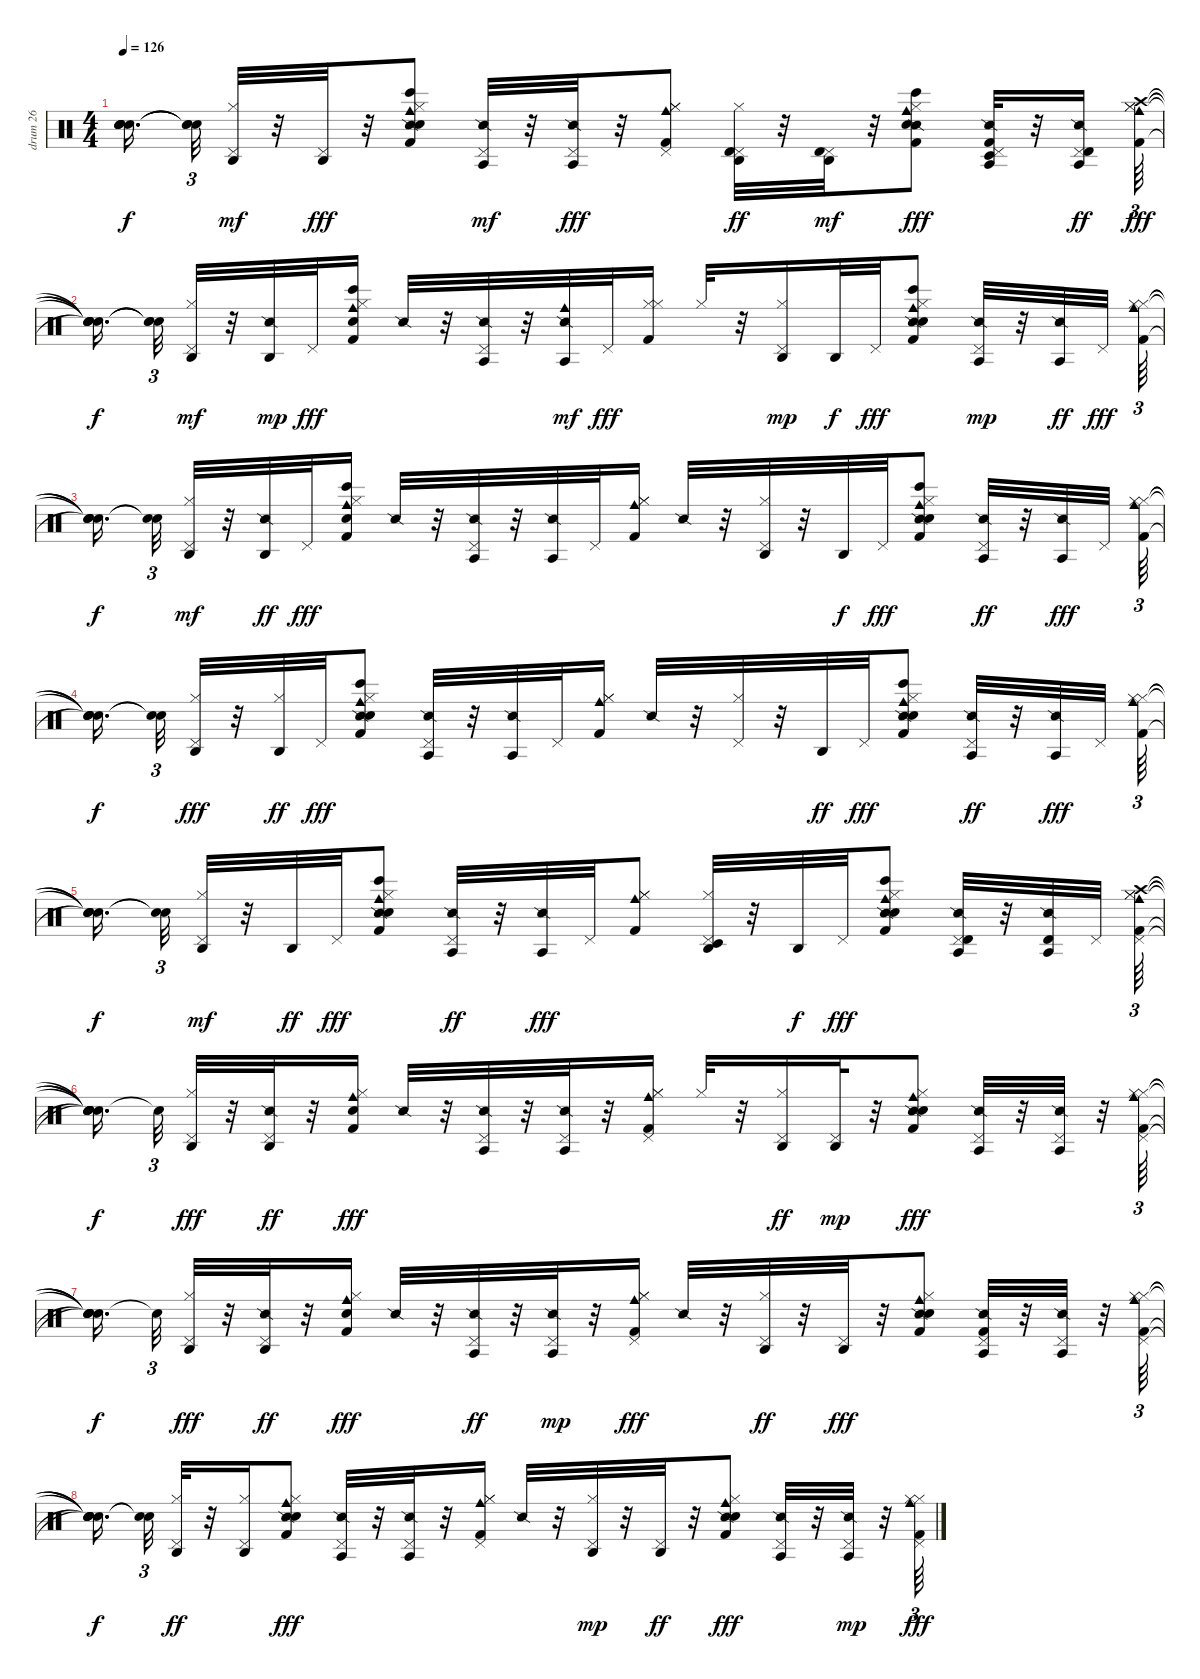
\track ("drum 26" "drum 26") {instrument percussion}
\staff {score}
\articulation defaults
\ts (4 4)
\tempo 126
\clef neutral
\ks c
("Snare (hit)"{t} "Snare (hit)"{t} "Snare (hit)"{t} "Snare (hit)"{t} "Snare (hit)"{t}).16{d dy f beam splitsecondary} ("Snare (hit)"{t} "Snare (hit)"{t} "Snare (hit)"{t}).32{tu (3 2)} ("Hi-Hat (closed)" "Pedal Hi-Hat (hit)" "Agogo high (hit)").32{dy mf} r.32 ("Pedal Hi-Hat (hit)" "Agogo high (hit)").32{dy fff} r.32 ("Bongo High (hit)" "Snare (side stick) 2" "Kick (hit) 2" "Hand Clap (hit)" "Hi-Hat (closed)" "Cowbell medium (hit)").8 ("Snare (side stick) 2" "Pedal Hi-Hat (hit)" "Agogo tow (hit)").32{dy mf} r.32 ("Snare (side stick) 2" "Pedal Hi-Hat (hit)" "Agogo tow (hit)").32{dy fff} r.32 ("Hi-Hat (closed)" "Kick (hit) 2" "Hi-Hat (closed)" "Pedal Hi-Hat (hit)" "Cowbell medium (hit)").8 ("Hi-Hat (closed)" "Pedal Hi-Hat (hit)" "Timbale high (hit)" "Agogo high (hit)").32{dy ff} r.32 ("Pedal Hi-Hat (hit)" "Timbale high (hit)" "Agogo high (hit)").32{dy mf} r.32 ("Bongo High (hit)" "Snare (side stick) 2" "Kick (hit) 2" "Hand Clap (hit)" "Hi-Hat (closed)" "Cowbell medium (hit)").8{dy fff} ("Snare (side stick) 2" "Kick (hit) 2" "Pedal Hi-Hat (hit)" "Timbale low (hit)" "Agogo tow (hit)").32 r.32 ("Snare (side stick) 2" "Pedal Hi-Hat (hit)" "Timbale high (hit)" "Agogo tow (hit)").16{dy ff} ("Hi-Hat (closed)" "Kick (hit) 2" "Hi-Hat (closed)" "Crash high (hit)" "Cowbell medium (hit)").64{tu (3 2) dy fff} |
("Snare (hit)"{t} "Snare (hit)"{t} "Snare (hit)"{t} "Snare (hit)"{t} "Snare (hit)"{t}).16{d dy f beam splitsecondary} ("Snare (hit)"{t} "Snare (hit)"{t} "Snare (hit)"{t}).32{tu (3 2)} ("Hi-Hat (closed)" "Pedal Hi-Hat (hit)" "Agogo high (hit)").32{dy mf} r.32 ("Snare (side stick) 2" "Agogo high (hit)").32{dy mp} "Pedal Hi-Hat (hit)".32{dy fff} ("Bongo High (hit)" "Kick (hit) 2" "Hand Clap (hit)" "Hi-Hat (closed)" "Cowbell medium (hit)").16 "Snare (side stick) 2".32 r.32 ("Snare (side stick) 2" "Pedal Hi-Hat (hit)" "Agogo tow (hit)").32 r.32 ("Snare (side stick) 2" "Cowbell medium (hit)" "Agogo tow (hit)").32{dy mf} "Pedal Hi-Hat (hit)".32{dy fff} ("Hi-Hat (closed)" "Kick (hit) 2" "Hi-Hat (closed)").16 "Hi-Hat (closed)".32 r.32 ("Hi-Hat (closed)" "Pedal Hi-Hat (hit)" "Agogo high (hit)").16{dy mp} "Agogo high (hit)".32{dy f} "Pedal Hi-Hat (hit)".32{dy fff} ("Bongo High (hit)" "Snare (side stick) 2" "Kick (hit) 2" "Hand Clap (hit)" "Hi-Hat (closed)" "Cowbell medium (hit)").8 ("Snare (side stick) 2" "Pedal Hi-Hat (hit)" "Agogo tow (hit)").32{dy mp} r.32 ("Snare (side stick) 2" "Agogo tow (hit)").32{dy ff} "Pedal Hi-Hat (hit)".32{dy fff beam splitsecondary} ("Hi-Hat (closed)" "Kick (hit) 2" "Hi-Hat (closed)" "Cowbell medium (hit)").64{tu (3 2)} |
("Snare (hit)"{t} "Snare (hit)"{t} "Snare (hit)"{t} "Snare (hit)"{t}).16{d dy f beam splitsecondary} ("Snare (hit)"{t} "Snare (hit)"{t}).32{tu (3 2)} ("Hi-Hat (closed)" "Pedal Hi-Hat (hit)" "Agogo high (hit)").32{dy mf} r.32 ("Snare (side stick) 2" "Agogo high (hit)").32{dy ff} "Pedal Hi-Hat (hit)".32{dy fff} ("Bongo High (hit)" "Kick (hit) 2" "Hand Clap (hit)" "Hi-Hat (closed)" "Cowbell medium (hit)").16 "Snare (side stick) 2".32 r.32 ("Snare (side stick) 2" "Pedal Hi-Hat (hit)" "Agogo tow (hit)").32 r.32 ("Snare (side stick) 2" "Agogo tow (hit)").32 "Pedal Hi-Hat (hit)".32 ("Hi-Hat (closed)" "Kick (hit) 2" "Hi-Hat (closed)" "Cowbell medium (hit)").16 "Snare (side stick) 2".32 r.32 ("Hi-Hat (closed)" "Pedal Hi-Hat (hit)" "Agogo high (hit)").32 r.32 "Agogo high (hit)".32{dy f} "Pedal Hi-Hat (hit)".32{dy fff} ("Bongo High (hit)" "Snare (side stick) 2" "Kick (hit) 2" "Hand Clap (hit)" "Hi-Hat (closed)" "Cowbell medium (hit)").8 ("Snare (side stick) 2" "Pedal Hi-Hat (hit)" "Agogo tow (hit)").32{dy ff} r.32 ("Snare (side stick) 2" "Agogo tow (hit)").32{dy fff} "Pedal Hi-Hat (hit)".32{beam splitsecondary} ("Hi-Hat (closed)" "Kick (hit) 2" "Hi-Hat (closed)" "Cowbell medium (hit)").64{tu (3 2)} |
("Snare (hit)"{t} "Snare (hit)"{t} "Snare (hit)"{t} "Snare (hit)"{t}).16{d dy f beam splitsecondary} ("Snare (hit)"{t} "Snare (hit)"{t}).32{tu (3 2)} ("Hi-Hat (closed)" "Pedal Hi-Hat (hit)" "Agogo high (hit)").32{dy fff} r.32 ("Hi-Hat (closed)" "Agogo high (hit)").32{dy ff} "Pedal Hi-Hat (hit)".32{dy fff} ("Bongo High (hit)" "Snare (side stick) 2" "Kick (hit) 2" "Hand Clap (hit)" "Hi-Hat (closed)" "Cowbell medium (hit)").8 ("Snare (side stick) 2" "Pedal Hi-Hat (hit)" "Agogo tow (hit)").32 r.32 ("Snare (side stick) 2" "Agogo tow (hit)").32 "Pedal Hi-Hat (hit)".32 ("Hi-Hat (closed)" "Kick (hit) 2" "Hi-Hat (closed)" "Cowbell medium (hit)").16 "Snare (side stick) 2".32 r.32 ("Hi-Hat (closed)" "Pedal Hi-Hat (hit)").32 r.32 "Agogo high (hit)".32{dy ff} "Pedal Hi-Hat (hit)".32{dy fff} ("Bongo High (hit)" "Snare (side stick) 2" "Kick (hit) 2" "Hand Clap (hit)" "Hi-Hat (closed)" "Cowbell medium (hit)").8 ("Snare (side stick) 2" "Pedal Hi-Hat (hit)" "Agogo tow (hit)").32{dy ff} r.32 ("Snare (side stick) 2" "Agogo tow (hit)").32{dy fff} "Pedal Hi-Hat (hit)".32{beam splitsecondary} ("Hi-Hat (closed)" "Kick (hit) 2" "Hi-Hat (closed)" "Cowbell medium (hit)").64{tu (3 2)} |
("Snare (hit)"{t} "Snare (hit)"{t} "Snare (hit)"{t} "Snare (hit)"{t}).16{d dy f beam splitsecondary} ("Snare (hit)"{t} "Snare (hit)"{t}).32{tu (3 2)} ("Hi-Hat (closed)" "Pedal Hi-Hat (hit)" "Agogo high (hit)").32{dy mf} r.32 "Agogo high (hit)".32{dy ff} "Pedal Hi-Hat (hit)".32{dy fff} ("Bongo High (hit)" "Snare (side stick) 2" "Kick (hit) 2" "Hand Clap (hit)" "Hi-Hat (closed)" "Cowbell medium (hit)").8 ("Snare (side stick) 2" "Pedal Hi-Hat (hit)" "Agogo tow (hit)").32{dy ff} r.32 ("Snare (side stick) 2" "Agogo tow (hit)").32{dy fff} "Pedal Hi-Hat (hit)".32 ("Hi-Hat (closed)" "Kick (hit) 2" "Hi-Hat (closed)" "Cowbell medium (hit)").8 ("Hi-Hat (closed)" "Pedal Hi-Hat (hit)" "Timbale low (hit)" "Agogo high (hit)").32 r.32 "Agogo high (hit)".32{dy f} "Pedal Hi-Hat (hit)".32{dy fff} ("Bongo High (hit)" "Snare (side stick) 2" "Kick (hit) 2" "Hand Clap (hit)" "Hi-Hat (closed)" "Cowbell medium (hit)").8 ("Snare (side stick) 2" "Pedal Hi-Hat (hit)" "Timbale high (hit)" "Agogo tow (hit)").32 r.32 ("Snare (side stick) 2" "Timbale high (hit)" "Agogo tow (hit)").32 "Pedal Hi-Hat (hit)".32{beam splitsecondary} ("Hi-Hat (closed)" "Kick (hit) 2" "Hi-Hat (closed)" "Pedal Hi-Hat (hit)" "Crash high (hit)" "Cowbell medium (hit)").64{tu (3 2)} |
("Snare (hit)"{t} "Snare (hit)"{t} "Snare (hit)"{t} "Snare (hit)"{t} "Snare (hit)"{t} "Snare (hit)"{t}).16{d dy f beam splitsecondary} "Snare (hit)"{t}.32{tu (3 2)} ("Hi-Hat (closed)" "Pedal Hi-Hat (hit)" "Agogo high (hit)").32{dy fff} r.32 ("Snare (side stick) 2" "Pedal Hi-Hat (hit)" "Agogo high (hit)").32{dy ff} r.32 ("Kick (hit) 2" "Hand Clap (hit)" "Hi-Hat (closed)" "Cowbell medium (hit)").16{dy fff} "Snare (side stick) 2".32 r.32 ("Snare (side stick) 2" "Pedal Hi-Hat (hit)" "Agogo tow (hit)").32 r.32 ("Snare (side stick) 2" "Pedal Hi-Hat (hit)" "Agogo tow (hit)").32 r.32 ("Hi-Hat (closed)" "Kick (hit) 2" "Hi-Hat (closed)" "Pedal Hi-Hat (hit)" "Cowbell medium (hit)").16 "Hi-Hat (closed)".32 r.32 ("Hi-Hat (closed)" "Pedal Hi-Hat (hit)" "Agogo high (hit)").16{dy ff} ("Pedal Hi-Hat (hit)" "Agogo high (hit)").32{dy mp} r.32 ("Snare (side stick) 2" "Kick (hit) 2" "Hand Clap (hit)" "Hi-Hat (closed)" "Cowbell medium (hit)").8{dy fff} ("Snare (side stick) 2" "Pedal Hi-Hat (hit)" "Agogo tow (hit)").32 r.32 ("Snare (side stick) 2" "Pedal Hi-Hat (hit)" "Agogo tow (hit)").32 r.32 ("Hi-Hat (closed)" "Kick (hit) 2" "Hi-Hat (closed)" "Pedal Hi-Hat (hit)" "Cowbell medium (hit)").64{tu (3 2)} |
("Snare (hit)"{t} "Snare (hit)"{t} "Snare (hit)"{t} "Snare (hit)"{t} "Snare (hit)"{t}).16{d dy f beam splitsecondary} "Snare (hit)"{t}.32{tu (3 2)} ("Hi-Hat (closed)" "Pedal Hi-Hat (hit)" "Agogo high (hit)").32{dy fff} r.32 ("Snare (side stick) 2" "Pedal Hi-Hat (hit)" "Agogo high (hit)").32{dy ff} r.32 ("Kick (hit) 2" "Hand Clap (hit)" "Hi-Hat (closed)" "Cowbell medium (hit)").16{dy fff} "Snare (side stick) 2".32 r.32 ("Snare (side stick) 2" "Pedal Hi-Hat (hit)" "Agogo tow (hit)").32{dy ff} r.32 ("Snare (side stick) 2" "Pedal Hi-Hat (hit)" "Agogo tow (hit)").32{dy mp} r.32 ("Hi-Hat (closed)" "Kick (hit) 2" "Hi-Hat (closed)" "Pedal Hi-Hat (hit)" "Cowbell medium (hit)").16{dy fff} "Snare (side stick) 2".32 r.32 ("Hi-Hat (closed)" "Pedal Hi-Hat (hit)" "Agogo high (hit)").32{dy ff} r.32 ("Pedal Hi-Hat (hit)" "Agogo high (hit)").32{dy fff} r.32 ("Snare (side stick) 2" "Kick (hit) 2" "Hand Clap (hit)" "Hi-Hat (closed)" "Cowbell medium (hit)").8 ("Snare (side stick) 2" "Kick (hit) 2" "Pedal Hi-Hat (hit)" "Agogo tow (hit)").32 r.32 ("Snare (side stick) 2" "Pedal Hi-Hat (hit)" "Agogo tow (hit)").32 r.32 ("Hi-Hat (closed)" "Kick (hit) 2" "Hi-Hat (closed)" "Pedal Hi-Hat (hit)" "Cowbell medium (hit)").64{tu (3 2)} |
("Snare (hit)"{t} "Snare (hit)"{t} "Snare (hit)"{t} "Snare (hit)"{t} "Snare (hit)"{t}).16{d dy f beam splitsecondary} ("Snare (hit)"{t} "Snare (hit)"{t}).32{tu (3 2)} ("Hi-Hat (closed)" "Pedal Hi-Hat (hit)" "Agogo high (hit)").32{dy ff} r.32 ("Hi-Hat (closed)" "Pedal Hi-Hat (hit)" "Agogo high (hit)").16 ("Snare (side stick) 2" "Kick (hit) 2" "Hand Clap (hit)" "Hi-Hat (closed)" "Cowbell medium (hit)").8{dy fff} ("Snare (side stick) 2" "Pedal Hi-Hat (hit)" "Agogo tow (hit)").32 r.32 ("Snare (side stick) 2" "Pedal Hi-Hat (hit)" "Agogo tow (hit)").32 r.32 ("Hi-Hat (closed)" "Kick (hit) 2" "Hi-Hat (closed)" "Pedal Hi-Hat (hit)" "Cowbell medium (hit)").16 "Snare (side stick) 2".32 r.32 ("Hi-Hat (closed)" "Pedal Hi-Hat (hit)" "Agogo high (hit)").32{dy mp} r.32 ("Pedal Hi-Hat (hit)" "Agogo high (hit)").32{dy ff} r.32 ("Snare (side stick) 2" "Kick (hit) 2" "Hand Clap (hit)" "Hi-Hat (closed)" "Cowbell medium (hit)").8{dy fff} ("Snare (side stick) 2" "Pedal Hi-Hat (hit)" "Agogo tow (hit)").32 r.32 ("Snare (side stick) 2" "Pedal Hi-Hat (hit)" "Agogo tow (hit)").32{dy mp} r.32 ("Hi-Hat (closed)" "Kick (hit) 2" "Hi-Hat (closed)" "Pedal Hi-Hat (hit)" "Cowbell medium (hit)").64{tu (3 2) dy fff}
